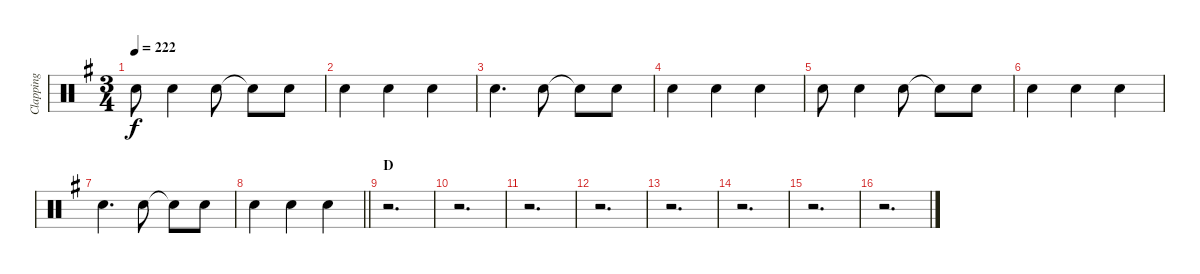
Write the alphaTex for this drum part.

\track ("Clapping" "Clapping") {instrument percussion}
\staff {score}
\articulation defaults
\ts (3 4)
\tempo 222
\clef neutral
\ks g "Hand Clap (hit)".8{dy f} "Hand Clap (hit)".4 "Hand Clap (hit)".8 "Snare (hit)"{t}.8 "Hand Clap (hit)".8
|
"Hand Clap (hit)".4 "Hand Clap (hit)".4 "Hand Clap (hit)".4 |
"Hand Clap (hit)".4{d} "Hand Clap (hit)".8 "Snare (hit)"{t}.8 "Hand Clap (hit)".8 |
"Hand Clap (hit)".4 "Hand Clap (hit)".4 "Hand Clap (hit)".4 |
"Hand Clap (hit)".8 "Hand Clap (hit)".4 "Hand Clap (hit)".8 "Snare (hit)"{t}.8 "Hand Clap (hit)".8 |
"Hand Clap (hit)".4 "Hand Clap (hit)".4 "Hand Clap (hit)".4 |
"Hand Clap (hit)".4{d} "Hand Clap (hit)".8 "Snare (hit)"{t}.8 "Hand Clap (hit)".8 |
\barLineRight lightlight "Hand Clap (hit)".4 "Hand Clap (hit)".4 "Hand Clap (hit)".4
|
\section ("" "D")
r.2{d} |
r.2{d} |
r.2{d} |
r.2{d} |
r.2{d} |
r.2{d} |
r.2{d} |
r.2{d}
